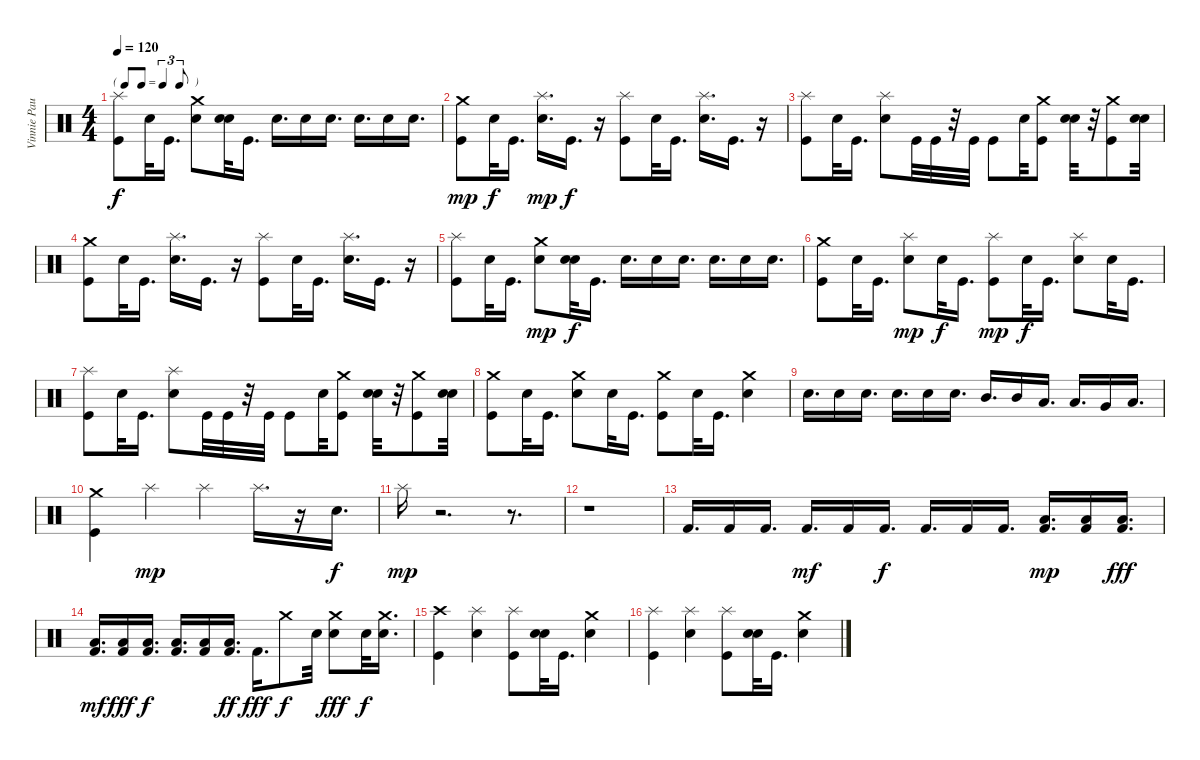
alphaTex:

\track ("Vinnie Paul" "Vinnie Pau") {instrument percussion}
\staff {score}
\articulation defaults
\ts (4 4)
\tf triplet8th
\tempo 120
\clef neutral
\ks c
("Kick (hit)" "Splash (hit)").8{dy f} "Snare (hit)".32 "Kick (hit)".16{d} ("Snare (hit) 2" "Crash medium (hit)").8 ("Snare (hit)" "Snare (hit)").32 "Kick (hit)".16{d} "Snare (hit) 2".16{d} "Snare (hit) 2".16 "Snare (hit) 2".16{d} "Snare (hit) 2".16{d} "Snare (hit) 2".16 "Snare (hit) 2".16{d} |
("Crash medium (hit)" "Kick (hit)").8{dy mp} "Snare (hit)".32{dy f} "Kick (hit)".16{d} ("Splash (hit)" "Snare (hit) 2").16{d dy mp} "Kick (hit)".16{d dy f} r.16 ("Kick (hit)" "Splash (hit)").8 "Snare (hit)".32 "Kick (hit)".16{d} ("Snare (hit) 2" "Splash (hit)").16{d} "Kick (hit)".16{d} r.16 |
("Kick (hit)" "Splash (hit)").8 "Snare (hit)".32 "Kick (hit)".16{d} ("Snare (hit) 2" "Splash (hit)").8 "Kick (hit)".32 "Kick (hit)".32 r.32 "Kick (hit)".32 "Kick (hit)".8 "Snare (hit)".32 ("Kick (hit)" "Crash medium (hit)").8 ("Snare (hit)" "Snare (hit)").32 r.32 ("Kick (hit)" "Crash medium (hit)").8 ("Snare (hit)" "Snare (hit)").32 |
("Kick (hit)" "Crash medium (hit)").8 "Snare (hit)".32 "Kick (hit)".16{d} ("Snare (hit) 2" "Splash (hit)").16{d} "Kick (hit)".16{d} r.16 ("Kick (hit)" "Splash (hit)").8 "Snare (hit)".32 "Kick (hit)".16{d} ("Snare (hit) 2" "Splash (hit)").16{d} "Kick (hit)".16{d} r.16 |
("Kick (hit)" "Splash (hit)").8 "Snare (hit)".32 "Kick (hit)".16{d} ("Crash medium (hit)" "Snare (hit) 2").8{dy mp} ("Snare (hit)" "Snare (hit)").32{dy f} "Kick (hit)".16{d} "Snare (hit) 2".16{d} "Snare (hit) 2".16 "Snare (hit) 2".16{d} "Snare (hit) 2".16{d} "Snare (hit) 2".16 "Snare (hit) 2".16{d} |
("Kick (hit)" "Crash medium (hit)").8 "Snare (hit)".32 "Kick (hit)".16{d} ("Splash (hit)" "Snare (hit) 2").8{dy mp} "Snare (hit)".32{dy f} "Kick (hit)".16{d} ("Splash (hit)" "Kick (hit)").8{dy mp} "Snare (hit)".32{dy f} "Kick (hit)".16{d} ("Snare (hit) 2" "Splash (hit)").8 "Snare (hit)".32 "Kick (hit)".16{d} |
("Kick (hit)" "Splash (hit)").8 "Snare (hit)".32 "Kick (hit)".16{d} ("Snare (hit) 2" "Splash (hit)").8 "Kick (hit)".32 "Kick (hit)".32 r.32 "Kick (hit)".32 "Kick (hit)".8 "Snare (hit)".32 ("Kick (hit)" "Crash medium (hit)").8 ("Snare (hit)" "Snare (hit)").32 r.32 ("Kick (hit)" "Crash medium (hit)").8 ("Snare (hit)" "Snare (hit)").32 |
("Kick (hit)" "Crash medium (hit)").8 "Snare (hit)".32 "Kick (hit)".16{d} ("Snare (hit) 2" "Crash medium (hit)").8 "Snare (hit)".32 "Kick (hit)".16{d} ("Kick (hit)" "Crash medium (hit)").8 "Snare (hit)".32 "Kick (hit)".16{d} ("Snare (hit) 2" "Crash medium (hit)").4 |
"Snare (hit) 2".16{d} "Snare (hit) 2".16 "Snare (hit) 2".16{d} "Snare (hit) 2".16{d} "Snare (hit) 2".16 "Snare (hit) 2".16{d} "Mid Tom (hit)".16{d} "Mid Tom (hit)".16 "Low Tom (hit)".16{d} "Low Tom (hit)".16{d} "Very Low Tom (hit)".16 "Low Floor Tom (hit)".16{d} |
("Kick (hit)" "Crash medium (hit)").4 "Splash (hit)".4{dy mp} "Splash (hit)".4 "Splash (hit)".16{d} r.16 "Snare (hit) 2".16{d dy f} |
"Splash (hit)".16{dy mp} r.2{d} r.8{d} |
r.1 |
"Kick (hit) 2".16{d} "Kick (hit) 2".16 "Kick (hit) 2".16{d} "Kick (hit) 2".16{d dy mf} "Kick (hit) 2".16 "Kick (hit) 2".16{d dy f} "Kick (hit) 2".16{d} "Kick (hit) 2".16 "Kick (hit) 2".16{d} ("Low Floor Tom (hit)" "Kick (hit) 2").16{d dy mp} ("Low Floor Tom (hit)" "Kick (hit) 2").16 ("Kick (hit) 2" "Low Floor Tom (hit)").16{d dy fff} |
("Low Floor Tom (hit)" "Kick (hit) 2").16{d dy mf} ("Kick (hit) 2" "Low Floor Tom (hit)").16{dy fff} ("Low Floor Tom (hit)" "Kick (hit) 2").16{d dy f} ("Low Floor Tom (hit)" "Kick (hit) 2").16{d} ("Low Floor Tom (hit)" "Kick (hit) 2").16 ("Low Floor Tom (hit)" "Kick (hit) 2").16{d dy ff} "Kick (hit) 2".16{d dy fff} "Crash medium (hit)".8{dy f} "Snare (hit)".32 ("Crash medium (hit)" "Snare (hit) 2").8{dy fff} "Snare (hit)".32{dy f} ("Snare (hit) 2" "Crash medium (hit)").16{d} |
("Kick (hit)" "Crash high (hit)").4 ("Snare (hit) 2" "Splash (hit)").4 ("Kick (hit)" "Splash (hit)").8 ("Snare (hit)" "Snare (hit)").32 "Kick (hit)".16{d} ("Snare (hit) 2" "Crash medium (hit)").4 |
("Kick (hit)" "Splash (hit)").4 ("Snare (hit) 2" "Splash (hit)").4 ("Kick (hit)" "Splash (hit)").8 ("Snare (hit)" "Snare (hit)").32 "Kick (hit)".16{d} ("Snare (hit) 2" "Crash medium (hit)").4
